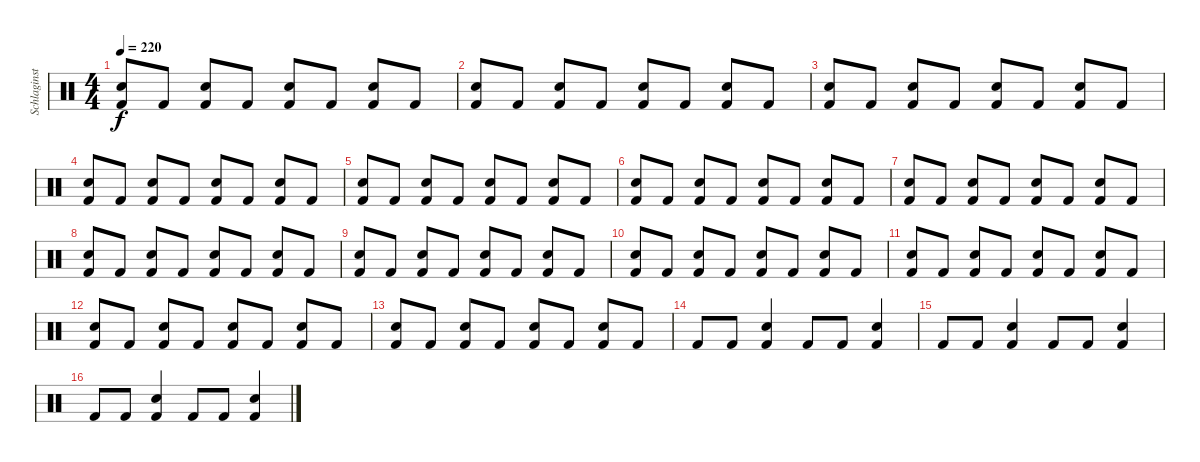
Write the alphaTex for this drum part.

\track ("Schlaginstrumente - Auswahl" "Schlaginst") {instrument percussion}
\staff {score}
\articulation defaults
\ts (4 4)
\tempo 220
\clef neutral
\ks c
("Snare (hit) 2" "Kick (hit) 2").8{dy f} "Kick (hit) 2".8 ("Snare (hit) 2" "Kick (hit) 2").8 "Kick (hit) 2".8 ("Snare (hit) 2" "Kick (hit) 2").8 "Kick (hit) 2".8 ("Snare (hit) 2" "Kick (hit) 2").8 "Kick (hit) 2".8 |
("Snare (hit) 2" "Kick (hit) 2").8 "Kick (hit) 2".8 ("Snare (hit) 2" "Kick (hit) 2").8 "Kick (hit) 2".8 ("Snare (hit) 2" "Kick (hit) 2").8 "Kick (hit) 2".8 ("Snare (hit) 2" "Kick (hit) 2").8 "Kick (hit) 2".8 |
("Snare (hit) 2" "Kick (hit) 2").8 "Kick (hit) 2".8 ("Snare (hit) 2" "Kick (hit) 2").8 "Kick (hit) 2".8 ("Snare (hit) 2" "Kick (hit) 2").8 "Kick (hit) 2".8 ("Snare (hit) 2" "Kick (hit) 2").8 "Kick (hit) 2".8 |
("Snare (hit) 2" "Kick (hit) 2").8 "Kick (hit) 2".8 ("Snare (hit) 2" "Kick (hit) 2").8 "Kick (hit) 2".8 ("Snare (hit) 2" "Kick (hit) 2").8 "Kick (hit) 2".8 ("Snare (hit) 2" "Kick (hit) 2").8 "Kick (hit) 2".8 |
("Snare (hit) 2" "Kick (hit) 2").8 "Kick (hit) 2".8 ("Snare (hit) 2" "Kick (hit) 2").8 "Kick (hit) 2".8 ("Snare (hit) 2" "Kick (hit) 2").8 "Kick (hit) 2".8 ("Snare (hit) 2" "Kick (hit) 2").8 "Kick (hit) 2".8 |
("Snare (hit) 2" "Kick (hit) 2").8 "Kick (hit) 2".8 ("Snare (hit) 2" "Kick (hit) 2").8 "Kick (hit) 2".8 ("Snare (hit) 2" "Kick (hit) 2").8 "Kick (hit) 2".8 ("Snare (hit) 2" "Kick (hit) 2").8 "Kick (hit) 2".8 |
("Snare (hit) 2" "Kick (hit) 2").8 "Kick (hit) 2".8 ("Snare (hit) 2" "Kick (hit) 2").8 "Kick (hit) 2".8 ("Snare (hit) 2" "Kick (hit) 2").8 "Kick (hit) 2".8 ("Snare (hit) 2" "Kick (hit) 2").8 "Kick (hit) 2".8 |
("Snare (hit) 2" "Kick (hit) 2").8 "Kick (hit) 2".8 ("Snare (hit) 2" "Kick (hit) 2").8 "Kick (hit) 2".8 ("Snare (hit) 2" "Kick (hit) 2").8 "Kick (hit) 2".8 ("Snare (hit) 2" "Kick (hit) 2").8 "Kick (hit) 2".8 |
("Snare (hit) 2" "Kick (hit) 2").8 "Kick (hit) 2".8 ("Snare (hit) 2" "Kick (hit) 2").8 "Kick (hit) 2".8 ("Snare (hit) 2" "Kick (hit) 2").8 "Kick (hit) 2".8 ("Snare (hit) 2" "Kick (hit) 2").8 "Kick (hit) 2".8 |
("Snare (hit) 2" "Kick (hit) 2").8 "Kick (hit) 2".8 ("Snare (hit) 2" "Kick (hit) 2").8 "Kick (hit) 2".8 ("Snare (hit) 2" "Kick (hit) 2").8 "Kick (hit) 2".8 ("Snare (hit) 2" "Kick (hit) 2").8 "Kick (hit) 2".8 |
("Snare (hit) 2" "Kick (hit) 2").8 "Kick (hit) 2".8 ("Snare (hit) 2" "Kick (hit) 2").8 "Kick (hit) 2".8 ("Snare (hit) 2" "Kick (hit) 2").8 "Kick (hit) 2".8 ("Snare (hit) 2" "Kick (hit) 2").8 "Kick (hit) 2".8 |
("Snare (hit) 2" "Kick (hit) 2").8 "Kick (hit) 2".8 ("Snare (hit) 2" "Kick (hit) 2").8 "Kick (hit) 2".8 ("Snare (hit) 2" "Kick (hit) 2").8 "Kick (hit) 2".8 ("Snare (hit) 2" "Kick (hit) 2").8 "Kick (hit) 2".8 |
("Snare (hit) 2" "Kick (hit) 2").8 "Kick (hit) 2".8 ("Snare (hit) 2" "Kick (hit) 2").8 "Kick (hit) 2".8 ("Snare (hit) 2" "Kick (hit) 2").8 "Kick (hit) 2".8 ("Snare (hit) 2" "Kick (hit) 2").8 "Kick (hit) 2".8 |
"Kick (hit) 2".8 "Kick (hit) 2".8 ("Snare (hit) 2" "Kick (hit) 2").4 "Kick (hit) 2".8 "Kick (hit) 2".8 ("Snare (hit) 2" "Kick (hit) 2").4 |
"Kick (hit) 2".8 "Kick (hit) 2".8 ("Snare (hit) 2" "Kick (hit) 2").4 "Kick (hit) 2".8 "Kick (hit) 2".8 ("Snare (hit) 2" "Kick (hit) 2").4 |
"Kick (hit) 2".8 "Kick (hit) 2".8 ("Snare (hit) 2" "Kick (hit) 2").4 "Kick (hit) 2".8 "Kick (hit) 2".8 ("Snare (hit) 2" "Kick (hit) 2").4
